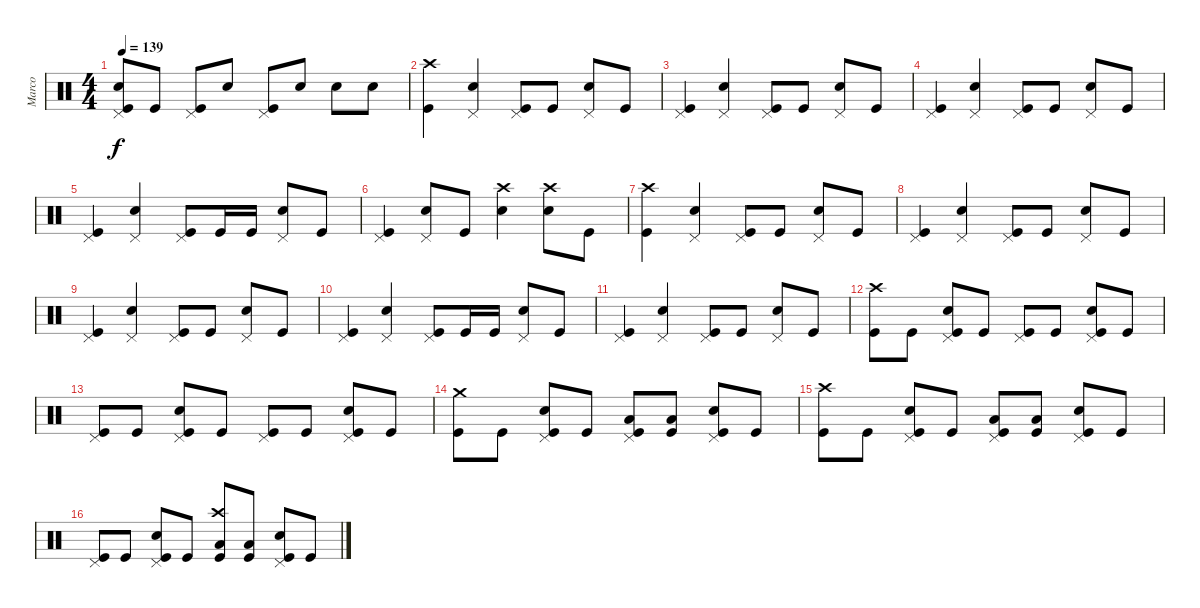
\track ("Marco" "Marco") {instrument percussion}
\staff {score}
\articulation defaults
\ts (4 4)
\tempo 139
\clef neutral
\ks c
("Pedal Hi-Hat (hit)" "Snare (hit) 2" "Kick (hit)").8{dy f} "Kick (hit)".8 ("Pedal Hi-Hat (hit)" "Kick (hit)").8 "Snare (hit) 2".8 ("Pedal Hi-Hat (hit)" "Kick (hit)").8 "Snare (hit) 2".8 "Snare (hit) 2".8 "Snare (hit) 2".8 |
("Crash high (hit)" "Kick (hit)").4 ("Pedal Hi-Hat (hit)" "Snare (hit) 2").4 ("Pedal Hi-Hat (hit)" "Kick (hit)").8 "Kick (hit)".8 ("Pedal Hi-Hat (hit)" "Snare (hit) 2").8 "Kick (hit)".8 |
("Pedal Hi-Hat (hit)" "Kick (hit)").4 ("Pedal Hi-Hat (hit)" "Snare (hit) 2").4 ("Pedal Hi-Hat (hit)" "Kick (hit)").8 "Kick (hit)".8 ("Pedal Hi-Hat (hit)" "Snare (hit) 2").8 "Kick (hit)".8 |
("Pedal Hi-Hat (hit)" "Kick (hit)").4 ("Pedal Hi-Hat (hit)" "Snare (hit) 2").4 ("Pedal Hi-Hat (hit)" "Kick (hit)").8 "Kick (hit)".8 ("Pedal Hi-Hat (hit)" "Snare (hit) 2").8 "Kick (hit)".8 |
("Pedal Hi-Hat (hit)" "Kick (hit)").4 ("Pedal Hi-Hat (hit)" "Snare (hit) 2").4 ("Pedal Hi-Hat (hit)" "Kick (hit)").8 "Kick (hit)".16 "Kick (hit)".16 ("Pedal Hi-Hat (hit)" "Snare (hit) 2").8 "Kick (hit)".8 |
("Pedal Hi-Hat (hit)" "Kick (hit)").4 ("Pedal Hi-Hat (hit)" "Snare (hit) 2").8 "Kick (hit)".8 ("Crash high (hit)" "Snare (hit) 2").4 ("Crash high (hit)" "Snare (hit) 2").8 "Kick (hit)".8 |
("Crash high (hit)" "Kick (hit)").4 ("Pedal Hi-Hat (hit)" "Snare (hit) 2").4 ("Pedal Hi-Hat (hit)" "Kick (hit)").8 "Kick (hit)".8 ("Pedal Hi-Hat (hit)" "Snare (hit) 2").8 "Kick (hit)".8 |
("Pedal Hi-Hat (hit)" "Kick (hit)").4 ("Pedal Hi-Hat (hit)" "Snare (hit) 2").4 ("Pedal Hi-Hat (hit)" "Kick (hit)").8 "Kick (hit)".8 ("Pedal Hi-Hat (hit)" "Snare (hit) 2").8 "Kick (hit)".8 |
("Pedal Hi-Hat (hit)" "Kick (hit)").4 ("Pedal Hi-Hat (hit)" "Snare (hit) 2").4 ("Pedal Hi-Hat (hit)" "Kick (hit)").8 "Kick (hit)".8 ("Pedal Hi-Hat (hit)" "Snare (hit) 2").8 "Kick (hit)".8 |
("Pedal Hi-Hat (hit)" "Kick (hit)").4 ("Pedal Hi-Hat (hit)" "Snare (hit) 2").4 ("Pedal Hi-Hat (hit)" "Kick (hit)").8 "Kick (hit)".16 "Kick (hit)".16 ("Pedal Hi-Hat (hit)" "Snare (hit) 2").8 "Kick (hit)".8 |
("Pedal Hi-Hat (hit)" "Kick (hit)").4 ("Pedal Hi-Hat (hit)" "Snare (hit) 2").4 ("Pedal Hi-Hat (hit)" "Kick (hit)").8 "Kick (hit)".8 ("Pedal Hi-Hat (hit)" "Snare (hit) 2").8 "Kick (hit)".8 |
("Crash high (hit)" "Kick (hit)").8 "Kick (hit)".8 ("Pedal Hi-Hat (hit)" "Snare (hit) 2" "Kick (hit)").8 "Kick (hit)".8 ("Pedal Hi-Hat (hit)" "Kick (hit)").8 "Kick (hit)".8 ("Pedal Hi-Hat (hit)" "Snare (hit) 2" "Kick (hit)").8 "Kick (hit)".8 |
("Pedal Hi-Hat (hit)" "Kick (hit)").8 "Kick (hit)".8 ("Pedal Hi-Hat (hit)" "Snare (hit) 2" "Kick (hit)").8 "Kick (hit)".8 ("Pedal Hi-Hat (hit)" "Kick (hit)").8 "Kick (hit)".8 ("Pedal Hi-Hat (hit)" "Snare (hit) 2" "Kick (hit)").8 "Kick (hit)".8 |
("Crash medium (hit)" "Kick (hit)").8 "Kick (hit)".8 ("Pedal Hi-Hat (hit)" "Snare (hit) 2" "Kick (hit)").8 "Kick (hit)".8 ("Pedal Hi-Hat (hit)" "Low Tom (hit)" "Kick (hit)").8 ("Low Tom (hit)" "Kick (hit)").8 ("Pedal Hi-Hat (hit)" "Snare (hit) 2" "Kick (hit)").8 "Kick (hit)".8 |
("Crash high (hit)" "Kick (hit)").8 "Kick (hit)".8 ("Pedal Hi-Hat (hit)" "Snare (hit) 2" "Kick (hit)").8 "Kick (hit)".8 ("Pedal Hi-Hat (hit)" "Low Tom (hit)" "Kick (hit)").8 ("Low Tom (hit)" "Kick (hit)").8 ("Pedal Hi-Hat (hit)" "Snare (hit) 2" "Kick (hit)").8 "Kick (hit)".8 |
("Pedal Hi-Hat (hit)" "Kick (hit)").8 "Kick (hit)".8 ("Pedal Hi-Hat (hit)" "Snare (hit) 2" "Kick (hit)").8 "Kick (hit)".8 ("Crash high (hit)" "Low Tom (hit)" "Kick (hit)").8 ("Low Tom (hit)" "Kick (hit)").8 ("Pedal Hi-Hat (hit)" "Snare (hit) 2" "Kick (hit)").8 "Kick (hit)".8
